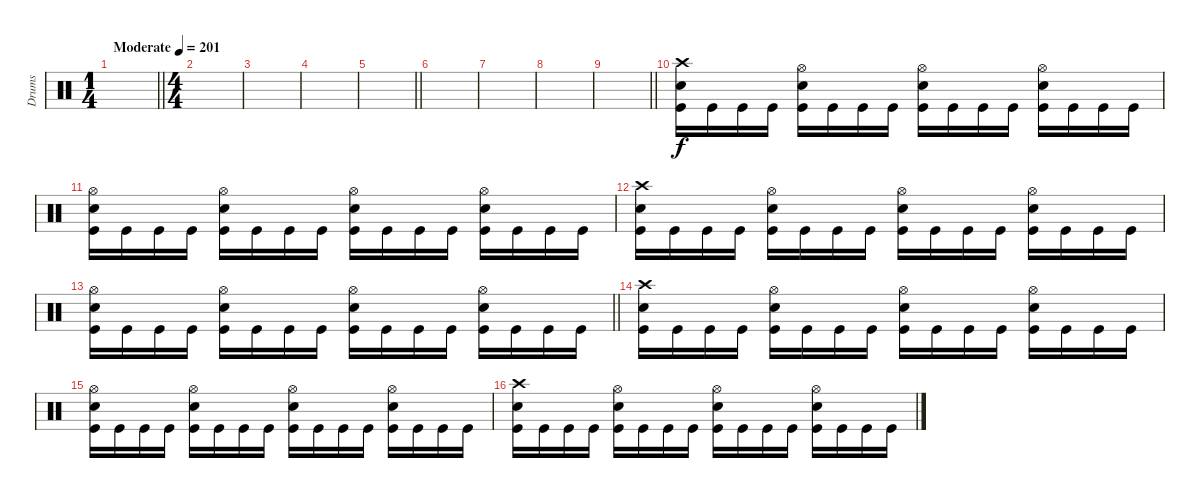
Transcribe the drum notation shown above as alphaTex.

\track ("Drums" "Drums") {instrument percussion}
\staff
\articulation defaults
\ts (1 4)
\tempo (201 "Moderate")
\clef neutral
\barLineRight lightlight
\ks c
|
\ts (4 4)
|
|
|
\barLineRight lightlight
|
|
|
|
\barLineRight lightlight
|
("Crash high (hit)" "Electric Snare (hit)" "Kick (hit)").16 "Kick (hit)".16 "Kick (hit)".16 "Kick (hit)".16 ("Hi-Hat (open)" "Electric Snare (hit)" "Kick (hit)").16 "Kick (hit)".16 "Kick (hit)".16 "Kick (hit)".16 ("Hi-Hat (open)" "Electric Snare (hit)" "Kick (hit)").16 "Kick (hit)".16 "Kick (hit)".16 "Kick (hit)".16 ("Hi-Hat (open)" "Electric Snare (hit)" "Kick (hit)").16 "Kick (hit)".16 "Kick (hit)".16 "Kick (hit)".16 |
("Hi-Hat (open)" "Electric Snare (hit)" "Kick (hit)").16 "Kick (hit)".16 "Kick (hit)".16 "Kick (hit)".16 ("Hi-Hat (open)" "Electric Snare (hit)" "Kick (hit)").16 "Kick (hit)".16 "Kick (hit)".16 "Kick (hit)".16 ("Hi-Hat (open)" "Electric Snare (hit)" "Kick (hit)").16 "Kick (hit)".16 "Kick (hit)".16 "Kick (hit)".16 ("Hi-Hat (open)" "Electric Snare (hit)" "Kick (hit)").16 "Kick (hit)".16 "Kick (hit)".16 "Kick (hit)".16 |
("Crash high (hit)" "Electric Snare (hit)" "Kick (hit)").16 "Kick (hit)".16 "Kick (hit)".16 "Kick (hit)".16 ("Hi-Hat (open)" "Electric Snare (hit)" "Kick (hit)").16 "Kick (hit)".16 "Kick (hit)".16 "Kick (hit)".16 ("Hi-Hat (open)" "Electric Snare (hit)" "Kick (hit)").16 "Kick (hit)".16 "Kick (hit)".16 "Kick (hit)".16 ("Hi-Hat (open)" "Electric Snare (hit)" "Kick (hit)").16 "Kick (hit)".16 "Kick (hit)".16 "Kick (hit)".16 |
\barLineRight lightlight
("Hi-Hat (open)" "Electric Snare (hit)" "Kick (hit)").16 "Kick (hit)".16 "Kick (hit)".16 "Kick (hit)".16 ("Hi-Hat (open)" "Electric Snare (hit)" "Kick (hit)").16 "Kick (hit)".16 "Kick (hit)".16 "Kick (hit)".16 ("Hi-Hat (open)" "Electric Snare (hit)" "Kick (hit)").16 "Kick (hit)".16 "Kick (hit)".16 "Kick (hit)".16 ("Hi-Hat (open)" "Electric Snare (hit)" "Kick (hit)").16 "Kick (hit)".16 "Kick (hit)".16 "Kick (hit)".16 |
("Crash high (hit)" "Electric Snare (hit)" "Kick (hit)").16 "Kick (hit)".16 "Kick (hit)".16 "Kick (hit)".16 ("Hi-Hat (open)" "Electric Snare (hit)" "Kick (hit)").16 "Kick (hit)".16 "Kick (hit)".16 "Kick (hit)".16 ("Hi-Hat (open)" "Electric Snare (hit)" "Kick (hit)").16 "Kick (hit)".16 "Kick (hit)".16 "Kick (hit)".16 ("Hi-Hat (open)" "Electric Snare (hit)" "Kick (hit)").16 "Kick (hit)".16 "Kick (hit)".16 "Kick (hit)".16 |
("Hi-Hat (open)" "Electric Snare (hit)" "Kick (hit)").16 "Kick (hit)".16 "Kick (hit)".16 "Kick (hit)".16 ("Hi-Hat (open)" "Electric Snare (hit)" "Kick (hit)").16 "Kick (hit)".16 "Kick (hit)".16 "Kick (hit)".16 ("Hi-Hat (open)" "Electric Snare (hit)" "Kick (hit)").16 "Kick (hit)".16 "Kick (hit)".16 "Kick (hit)".16 ("Hi-Hat (open)" "Electric Snare (hit)" "Kick (hit)").16 "Kick (hit)".16 "Kick (hit)".16 "Kick (hit)".16 |
("Crash high (hit)" "Electric Snare (hit)" "Kick (hit)").16 "Kick (hit)".16 "Kick (hit)".16 "Kick (hit)".16 ("Hi-Hat (open)" "Electric Snare (hit)" "Kick (hit)").16 "Kick (hit)".16 "Kick (hit)".16 "Kick (hit)".16 ("Hi-Hat (open)" "Electric Snare (hit)" "Kick (hit)").16 "Kick (hit)".16 "Kick (hit)".16 "Kick (hit)".16 ("Hi-Hat (open)" "Electric Snare (hit)" "Kick (hit)").16 "Kick (hit)".16 "Kick (hit)".16 "Kick (hit)".16
